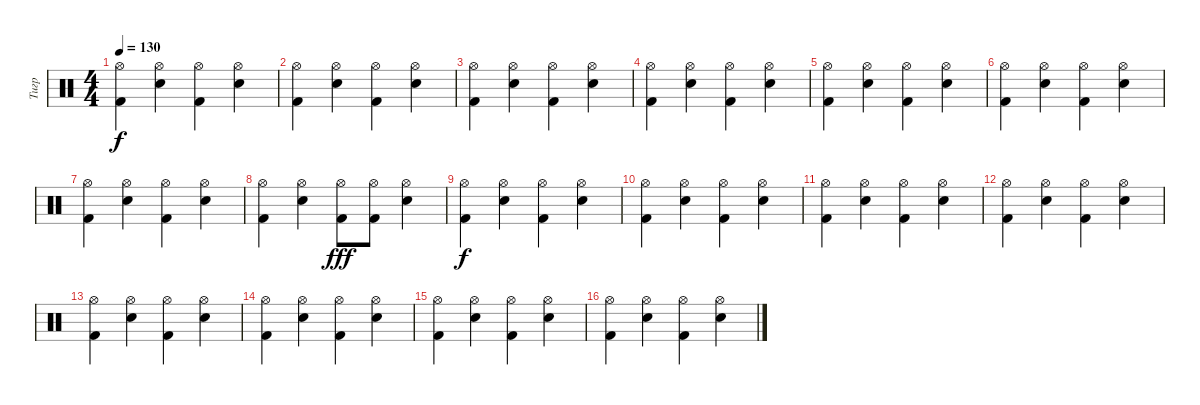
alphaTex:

\track ("Тигр" "Тигр") {instrument percussion}
\staff {score}
\articulation defaults
\ts (4 4)
\tempo 130
\clef neutral
\ks c
("Hi-Hat (open)" "Kick (hit) 2").4{dy f} ("Hi-Hat (open)" "Snare (hit) 2").4 ("Hi-Hat (open)" "Kick (hit) 2").4 ("Hi-Hat (open)" "Snare (hit) 2").4 |
("Hi-Hat (open)" "Kick (hit) 2").4 ("Hi-Hat (open)" "Snare (hit) 2").4 ("Hi-Hat (open)" "Kick (hit) 2").4 ("Hi-Hat (open)" "Snare (hit) 2").4 |
("Hi-Hat (open)" "Kick (hit) 2").4 ("Hi-Hat (open)" "Snare (hit) 2").4 ("Hi-Hat (open)" "Kick (hit) 2").4 ("Hi-Hat (open)" "Snare (hit) 2").4 |
("Hi-Hat (open)" "Kick (hit) 2").4 ("Hi-Hat (open)" "Snare (hit) 2").4 ("Hi-Hat (open)" "Kick (hit) 2").4 ("Hi-Hat (open)" "Snare (hit) 2").4 |
("Hi-Hat (open)" "Kick (hit) 2").4 ("Hi-Hat (open)" "Snare (hit) 2").4 ("Hi-Hat (open)" "Kick (hit) 2").4 ("Hi-Hat (open)" "Snare (hit) 2").4 |
("Hi-Hat (open)" "Kick (hit) 2").4 ("Hi-Hat (open)" "Snare (hit) 2").4 ("Hi-Hat (open)" "Kick (hit) 2").4 ("Hi-Hat (open)" "Snare (hit) 2").4 |
("Hi-Hat (open)" "Kick (hit) 2").4 ("Hi-Hat (open)" "Snare (hit) 2").4 ("Hi-Hat (open)" "Kick (hit) 2").4 ("Hi-Hat (open)" "Snare (hit) 2").4 |
("Hi-Hat (open)" "Kick (hit) 2").4 ("Hi-Hat (open)" "Snare (hit) 2").4 ("Hi-Hat (open)" "Kick (hit) 2").8{dy fff} ("Hi-Hat (open)" "Kick (hit) 2").8 ("Hi-Hat (open)" "Snare (hit) 2").4 |
("Hi-Hat (open)" "Kick (hit) 2").4{dy f} ("Hi-Hat (open)" "Snare (hit) 2").4 ("Hi-Hat (open)" "Kick (hit) 2").4 ("Hi-Hat (open)" "Snare (hit) 2").4 |
("Hi-Hat (open)" "Kick (hit) 2").4 ("Hi-Hat (open)" "Snare (hit) 2").4 ("Hi-Hat (open)" "Kick (hit) 2").4 ("Hi-Hat (open)" "Snare (hit) 2").4 |
("Hi-Hat (open)" "Kick (hit) 2").4 ("Hi-Hat (open)" "Snare (hit) 2").4 ("Hi-Hat (open)" "Kick (hit) 2").4 ("Hi-Hat (open)" "Snare (hit) 2").4 |
("Hi-Hat (open)" "Kick (hit) 2").4 ("Hi-Hat (open)" "Snare (hit) 2").4 ("Hi-Hat (open)" "Kick (hit) 2").4 ("Hi-Hat (open)" "Snare (hit) 2").4 |
("Hi-Hat (open)" "Kick (hit) 2").4 ("Hi-Hat (open)" "Snare (hit) 2").4 ("Hi-Hat (open)" "Kick (hit) 2").4 ("Hi-Hat (open)" "Snare (hit) 2").4 |
("Hi-Hat (open)" "Kick (hit) 2").4 ("Hi-Hat (open)" "Snare (hit) 2").4 ("Hi-Hat (open)" "Kick (hit) 2").4 ("Hi-Hat (open)" "Snare (hit) 2").4 |
("Hi-Hat (open)" "Kick (hit) 2").4 ("Hi-Hat (open)" "Snare (hit) 2").4 ("Hi-Hat (open)" "Kick (hit) 2").4 ("Hi-Hat (open)" "Snare (hit) 2").4 |
("Hi-Hat (open)" "Kick (hit) 2").4 ("Hi-Hat (open)" "Snare (hit) 2").4 ("Hi-Hat (open)" "Kick (hit) 2").4 ("Hi-Hat (open)" "Snare (hit) 2").4
